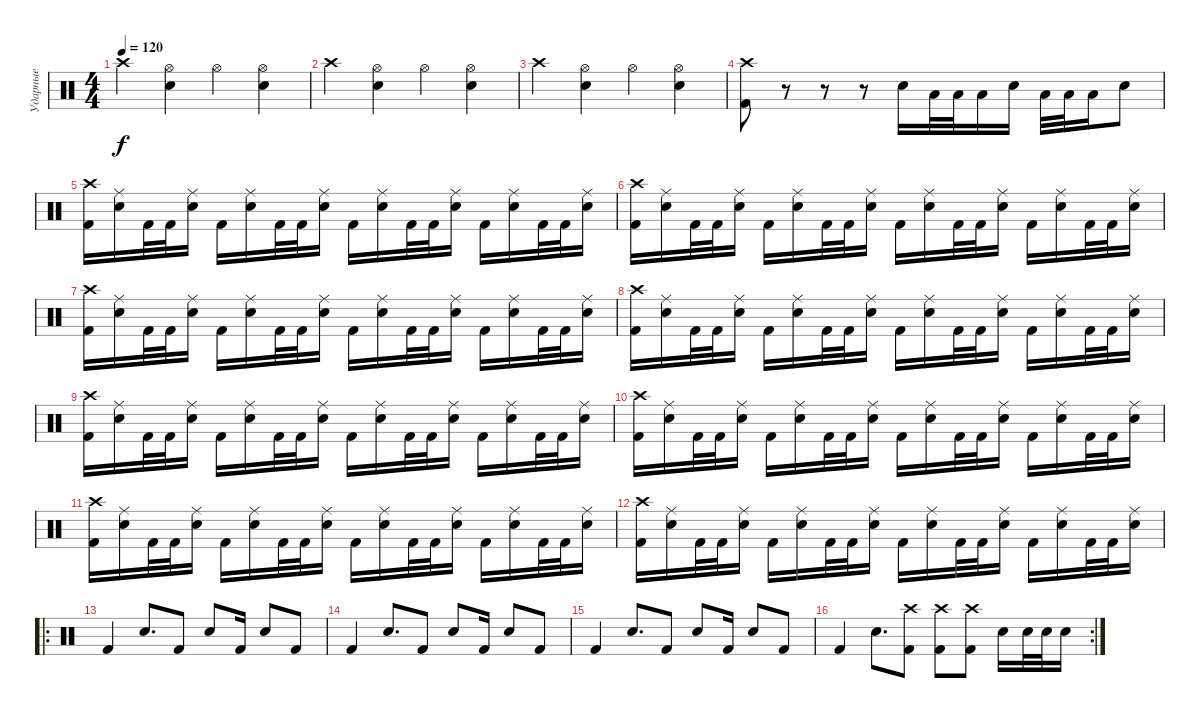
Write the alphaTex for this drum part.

\track ("Ударные" "Ударные") {instrument percussion}
\staff {score}
\articulation defaults
\ts (4 4)
\tempo 120
\clef neutral
\ks c "Crash high (hit)".4{dy f}
("Hi-Hat (open)" "Electric Snare (hit)").4 "Hi-Hat (open)".4 ("Hi-Hat (open)" "Electric Snare (hit)").4 |
"Crash high (hit)".4 ("Hi-Hat (open)" "Electric Snare (hit)").4 "Hi-Hat (open)".4 ("Hi-Hat (open)" "Electric Snare (hit)").4 |
"Crash high (hit)".4 ("Hi-Hat (open)" "Electric Snare (hit)").4 "Hi-Hat (open)".4 ("Hi-Hat (open)" "Electric Snare (hit)").4 |
("Kick (hit) 2" "Crash high (hit)").8 r.8 r.8 r.8 "Electric Snare (hit)".16 "Low Tom (hit)".32 "Low Tom (hit)".32 "Low Tom (hit)".16 "Electric Snare (hit)".16 "Low Tom (hit)".32 "Low Tom (hit)".32 "Low Tom (hit)".16 "Electric Snare (hit)".8 |
("Kick (hit) 2" "Crash high (hit)").16 ("Electric Snare (hit)" "Ride (middle)").16 "Kick (hit) 2".32 "Kick (hit) 2".32 ("Electric Snare (hit)" "Ride (middle)").16 "Kick (hit) 2".16 ("Electric Snare (hit)" "Ride (middle)").16 "Kick (hit) 2".32 "Kick (hit) 2".32 ("Electric Snare (hit)" "Ride (middle)").16 "Kick (hit) 2".16 ("Electric Snare (hit)" "Ride (middle)").16 "Kick (hit) 2".32 "Kick (hit) 2".32 ("Electric Snare (hit)" "Ride (middle)").16 "Kick (hit) 2".16 ("Electric Snare (hit)" "Ride (middle)").16 "Kick (hit) 2".32 "Kick (hit) 2".32 ("Electric Snare (hit)" "Ride (middle)").16 |
("Kick (hit) 2" "Crash high (hit)").16 ("Electric Snare (hit)" "Ride (middle)").16 "Kick (hit) 2".32 "Kick (hit) 2".32 ("Electric Snare (hit)" "Ride (middle)").16 "Kick (hit) 2".16 ("Electric Snare (hit)" "Ride (middle)").16 "Kick (hit) 2".32 "Kick (hit) 2".32 ("Electric Snare (hit)" "Ride (middle)").16 "Kick (hit) 2".16 ("Electric Snare (hit)" "Ride (middle)").16 "Kick (hit) 2".32 "Kick (hit) 2".32 ("Electric Snare (hit)" "Ride (middle)").16 "Kick (hit) 2".16 ("Electric Snare (hit)" "Ride (middle)").16 "Kick (hit) 2".32 "Kick (hit) 2".32 ("Electric Snare (hit)" "Ride (middle)").16 |
("Kick (hit) 2" "Crash high (hit)").16 ("Electric Snare (hit)" "Ride (middle)").16 "Kick (hit) 2".32 "Kick (hit) 2".32 ("Electric Snare (hit)" "Ride (middle)").16 "Kick (hit) 2".16 ("Electric Snare (hit)" "Ride (middle)").16 "Kick (hit) 2".32 "Kick (hit) 2".32 ("Electric Snare (hit)" "Ride (middle)").16 "Kick (hit) 2".16 ("Electric Snare (hit)" "Ride (middle)").16 "Kick (hit) 2".32 "Kick (hit) 2".32 ("Electric Snare (hit)" "Ride (middle)").16 "Kick (hit) 2".16 ("Electric Snare (hit)" "Ride (middle)").16 "Kick (hit) 2".32 "Kick (hit) 2".32 ("Electric Snare (hit)" "Ride (middle)").16 |
("Kick (hit) 2" "Crash high (hit)").16 ("Electric Snare (hit)" "Ride (middle)").16 "Kick (hit) 2".32 "Kick (hit) 2".32 ("Electric Snare (hit)" "Ride (middle)").16 "Kick (hit) 2".16 ("Electric Snare (hit)" "Ride (middle)").16 "Kick (hit) 2".32 "Kick (hit) 2".32 ("Electric Snare (hit)" "Ride (middle)").16 "Kick (hit) 2".16 ("Electric Snare (hit)" "Ride (middle)").16 "Kick (hit) 2".32 "Kick (hit) 2".32 ("Electric Snare (hit)" "Ride (middle)").16 "Kick (hit) 2".16 ("Electric Snare (hit)" "Ride (middle)").16 "Kick (hit) 2".32 "Kick (hit) 2".32 ("Electric Snare (hit)" "Ride (middle)").16 |
("Kick (hit) 2" "Crash high (hit)").16 ("Electric Snare (hit)" "Ride (middle)").16 "Kick (hit) 2".32 "Kick (hit) 2".32 ("Electric Snare (hit)" "Ride (middle)").16 "Kick (hit) 2".16 ("Electric Snare (hit)" "Ride (middle)").16 "Kick (hit) 2".32 "Kick (hit) 2".32 ("Electric Snare (hit)" "Ride (middle)").16 "Kick (hit) 2".16 ("Electric Snare (hit)" "Ride (middle)").16 "Kick (hit) 2".32 "Kick (hit) 2".32 ("Electric Snare (hit)" "Ride (middle)").16 "Kick (hit) 2".16 ("Electric Snare (hit)" "Ride (middle)").16 "Kick (hit) 2".32 "Kick (hit) 2".32 ("Electric Snare (hit)" "Ride (middle)").16 |
("Kick (hit) 2" "Crash high (hit)").16 ("Electric Snare (hit)" "Ride (middle)").16 "Kick (hit) 2".32 "Kick (hit) 2".32 ("Electric Snare (hit)" "Ride (middle)").16 "Kick (hit) 2".16 ("Electric Snare (hit)" "Ride (middle)").16 "Kick (hit) 2".32 "Kick (hit) 2".32 ("Electric Snare (hit)" "Ride (middle)").16 "Kick (hit) 2".16 ("Electric Snare (hit)" "Ride (middle)").16 "Kick (hit) 2".32 "Kick (hit) 2".32 ("Electric Snare (hit)" "Ride (middle)").16 "Kick (hit) 2".16 ("Electric Snare (hit)" "Ride (middle)").16 "Kick (hit) 2".32 "Kick (hit) 2".32 ("Electric Snare (hit)" "Ride (middle)").16 |
("Kick (hit) 2" "Crash high (hit)").16 ("Electric Snare (hit)" "Ride (middle)").16 "Kick (hit) 2".32 "Kick (hit) 2".32 ("Electric Snare (hit)" "Ride (middle)").16 "Kick (hit) 2".16 ("Electric Snare (hit)" "Ride (middle)").16 "Kick (hit) 2".32 "Kick (hit) 2".32 ("Electric Snare (hit)" "Ride (middle)").16 "Kick (hit) 2".16 ("Electric Snare (hit)" "Ride (middle)").16 "Kick (hit) 2".32 "Kick (hit) 2".32 ("Electric Snare (hit)" "Ride (middle)").16 "Kick (hit) 2".16 ("Electric Snare (hit)" "Ride (middle)").16 "Kick (hit) 2".32 "Kick (hit) 2".32 ("Electric Snare (hit)" "Ride (middle)").16 |
("Kick (hit) 2" "Crash high (hit)").16 ("Electric Snare (hit)" "Ride (middle)").16 "Kick (hit) 2".32 "Kick (hit) 2".32 ("Electric Snare (hit)" "Ride (middle)").16 "Kick (hit) 2".16 ("Electric Snare (hit)" "Ride (middle)").16 "Kick (hit) 2".32 "Kick (hit) 2".32 ("Electric Snare (hit)" "Ride (middle)").16 "Kick (hit) 2".16 ("Electric Snare (hit)" "Ride (middle)").16 "Kick (hit) 2".32 "Kick (hit) 2".32 ("Electric Snare (hit)" "Ride (middle)").16 "Kick (hit) 2".16 ("Electric Snare (hit)" "Ride (middle)").16 "Kick (hit) 2".32 "Kick (hit) 2".32 ("Electric Snare (hit)" "Ride (middle)").16 |
\ro "Kick (hit) 2".4 "Electric Snare (hit)".8{d} "Kick (hit) 2".8 "Electric Snare (hit)".8 "Kick (hit) 2".16 "Electric Snare (hit)".8 "Kick (hit) 2".8
|
"Kick (hit) 2".4 "Electric Snare (hit)".8{d} "Kick (hit) 2".8 "Electric Snare (hit)".8 "Kick (hit) 2".16 "Electric Snare (hit)".8 "Kick (hit) 2".8 |
"Kick (hit) 2".4 "Electric Snare (hit)".8{d} "Kick (hit) 2".8 "Electric Snare (hit)".8 "Kick (hit) 2".16 "Electric Snare (hit)".8 "Kick (hit) 2".8 |
\rc 2 "Kick (hit) 2".4 "Electric Snare (hit)".8{d}
("Kick (hit) 2" "Crash high (hit)").8 ("Kick (hit) 2" "Crash high (hit)").8 ("Kick (hit) 2" "Crash high (hit)").8 "Electric Snare (hit)".16 "Electric Snare (hit)".32 "Electric Snare (hit)".32 "Electric Snare (hit)".16
